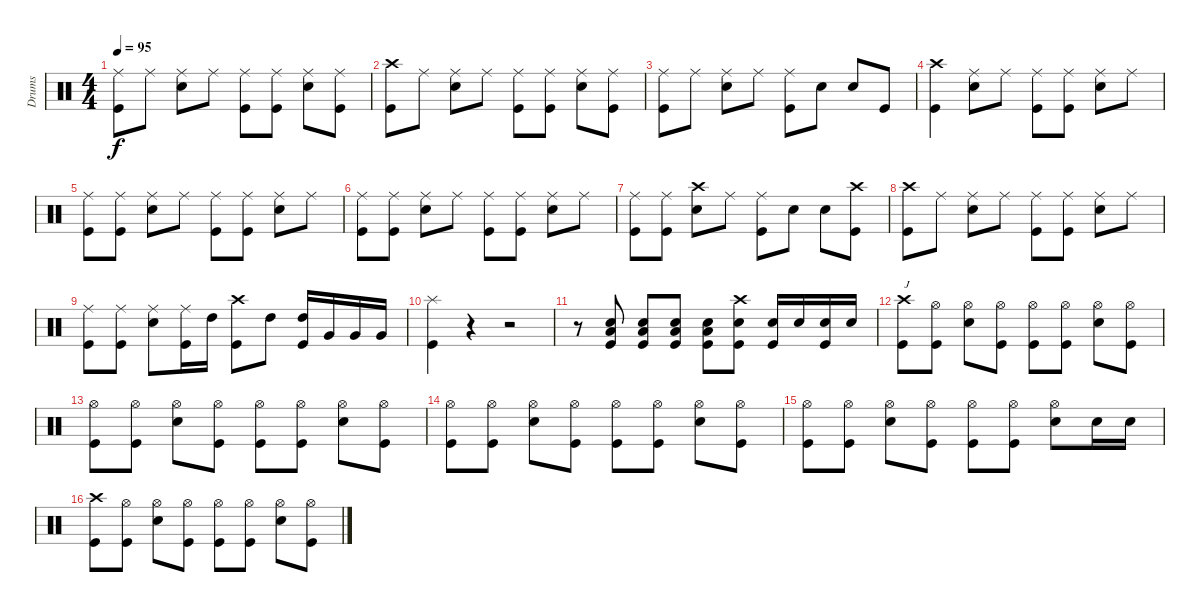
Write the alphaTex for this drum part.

\track ("Drums" "Drums") {instrument percussion}
\staff {score}
\articulation defaults
\ts (4 4)
\tempo 95
\clef neutral
\ks c
("Ride (middle)" "Kick (hit)").8{dy f} "Ride (middle)".8 ("Ride (middle)" "Electric Snare (hit)").8 "Ride (middle)".8 ("Ride (middle)" "Kick (hit)").8 ("Ride (middle)" "Kick (hit)").8 ("Ride (middle)" "Electric Snare (hit)").8 ("Ride (middle)" "Kick (hit)").8 |
("Crash high (hit)" "Kick (hit)").8 "Ride (middle)".8 ("Ride (middle)" "Electric Snare (hit)").8 "Ride (middle)".8 ("Ride (middle)" "Kick (hit)").8 ("Ride (middle)" "Kick (hit)").8 ("Ride (middle)" "Electric Snare (hit)").8 ("Ride (middle)" "Kick (hit)").8 |
("Ride (middle)" "Kick (hit)").8 "Ride (middle)".8 ("Ride (middle)" "Electric Snare (hit)").8 "Ride (middle)".8 ("Ride (middle)" "Kick (hit)").8 "Electric Snare (hit)".8 "Electric Snare (hit)".8 "Kick (hit)".8 |
("Crash high (hit)" "Kick (hit)").4 ("Ride (middle)" "Electric Snare (hit)").8 "Ride (middle)".8 ("Ride (middle)" "Kick (hit)").8 ("Ride (middle)" "Kick (hit)").8 ("Ride (middle)" "Electric Snare (hit)").8 "Ride (middle)".8 |
("Ride (middle)" "Kick (hit)").8 ("Ride (middle)" "Kick (hit)").8 ("Ride (middle)" "Electric Snare (hit)").8 "Ride (middle)".8 ("Ride (middle)" "Kick (hit)").8 ("Ride (middle)" "Kick (hit)").8 ("Ride (middle)" "Electric Snare (hit)").8 "Ride (middle)".8 |
("Ride (middle)" "Kick (hit)").8 ("Ride (middle)" "Kick (hit)").8 ("Ride (middle)" "Electric Snare (hit)").8 "Ride (middle)".8 ("Ride (middle)" "Kick (hit)").8 ("Ride (middle)" "Kick (hit)").8 ("Ride (middle)" "Electric Snare (hit)").8 "Ride (middle)".8 |
("Ride (middle)" "Kick (hit)").8 ("Ride (middle)" "Kick (hit)").8 ("Crash high (hit)" "Electric Snare (hit)").8 "Ride (middle)".8 ("Ride (middle)" "Kick (hit)").8 "Electric Snare (hit)".8 "Electric Snare (hit)".8 ("Crash high (hit)" "Kick (hit)").8 |
("Crash high (hit)" "Kick (hit)").8 "Ride (middle)".8 ("Ride (middle)" "Electric Snare (hit)").8 "Ride (middle)".8 ("Ride (middle)" "Kick (hit)").8 ("Ride (middle)" "Kick (hit)").8 ("Ride (middle)" "Electric Snare (hit)").8 "Ride (middle)".8 |
("Ride (middle)" "Kick (hit)").8 ("Ride (middle)" "Kick (hit)").8 ("Ride (middle)" "Electric Snare (hit)").8 ("Ride (middle)" "Kick (hit)").16 "High Tom (hit)".16 ("Crash high (hit)" "Kick (hit)").8 "High Tom (hit)".8 ("High Tom (hit)" "Kick (hit)").16 "Very Low Tom (hit)".16 "Very Low Tom (hit)".16 "Very Low Tom (hit)".16 |
("Splash (hit)" "Kick (hit)").4 r.4 r.2 |
r.8 ("Low Floor Tom (hit)" "Electric Snare (hit)" "Kick (hit)").8 ("Low Floor Tom (hit)" "Electric Snare (hit)" "Kick (hit)").8 ("Low Floor Tom (hit)" "Electric Snare (hit)" "Kick (hit)").8 ("Low Floor Tom (hit)" "Electric Snare (hit)" "Kick (hit)").8 ("Crash high (hit)" "Electric Snare (hit)" "Kick (hit)").8 ("Electric Snare (hit)" "Kick (hit)").16 "Electric Snare (hit)".16 ("Electric Snare (hit)" "Kick (hit)").16 "Electric Snare (hit)".16 |
("Crash high (hit)" "Kick (hit)").8{txt "J"} ("Hi-Hat (open)" "Kick (hit)").8 ("Hi-Hat (open)" "Electric Snare (hit)").8 ("Hi-Hat (open)" "Kick (hit)").8 ("Hi-Hat (open)" "Kick (hit)").8 ("Hi-Hat (open)" "Kick (hit)").8 ("Hi-Hat (open)" "Electric Snare (hit)").8 ("Hi-Hat (open)" "Kick (hit)").8 |
("Hi-Hat (open)" "Kick (hit)").8 ("Hi-Hat (open)" "Kick (hit)").8 ("Hi-Hat (open)" "Electric Snare (hit)").8 ("Hi-Hat (open)" "Kick (hit)").8 ("Hi-Hat (open)" "Kick (hit)").8 ("Hi-Hat (open)" "Kick (hit)").8 ("Hi-Hat (open)" "Electric Snare (hit)").8 ("Hi-Hat (open)" "Kick (hit)").8 |
("Hi-Hat (open)" "Kick (hit)").8 ("Hi-Hat (open)" "Kick (hit)").8 ("Hi-Hat (open)" "Electric Snare (hit)").8 ("Hi-Hat (open)" "Kick (hit)").8 ("Hi-Hat (open)" "Kick (hit)").8 ("Hi-Hat (open)" "Kick (hit)").8 ("Hi-Hat (open)" "Electric Snare (hit)").8 ("Hi-Hat (open)" "Kick (hit)").8 |
("Hi-Hat (open)" "Kick (hit)").8 ("Hi-Hat (open)" "Kick (hit)").8 ("Hi-Hat (open)" "Electric Snare (hit)").8 ("Hi-Hat (open)" "Kick (hit)").8 ("Hi-Hat (open)" "Kick (hit)").8 ("Hi-Hat (open)" "Kick (hit)").8 ("Hi-Hat (open)" "Electric Snare (hit)").8 "Electric Snare (hit)".16 "Electric Snare (hit)".16 |
("Crash high (hit)" "Kick (hit)").8 ("Hi-Hat (open)" "Kick (hit)").8 ("Hi-Hat (open)" "Electric Snare (hit)").8 ("Hi-Hat (open)" "Kick (hit)").8 ("Hi-Hat (open)" "Kick (hit)").8 ("Hi-Hat (open)" "Kick (hit)").8 ("Hi-Hat (open)" "Electric Snare (hit)").8 ("Hi-Hat (open)" "Kick (hit)").8
